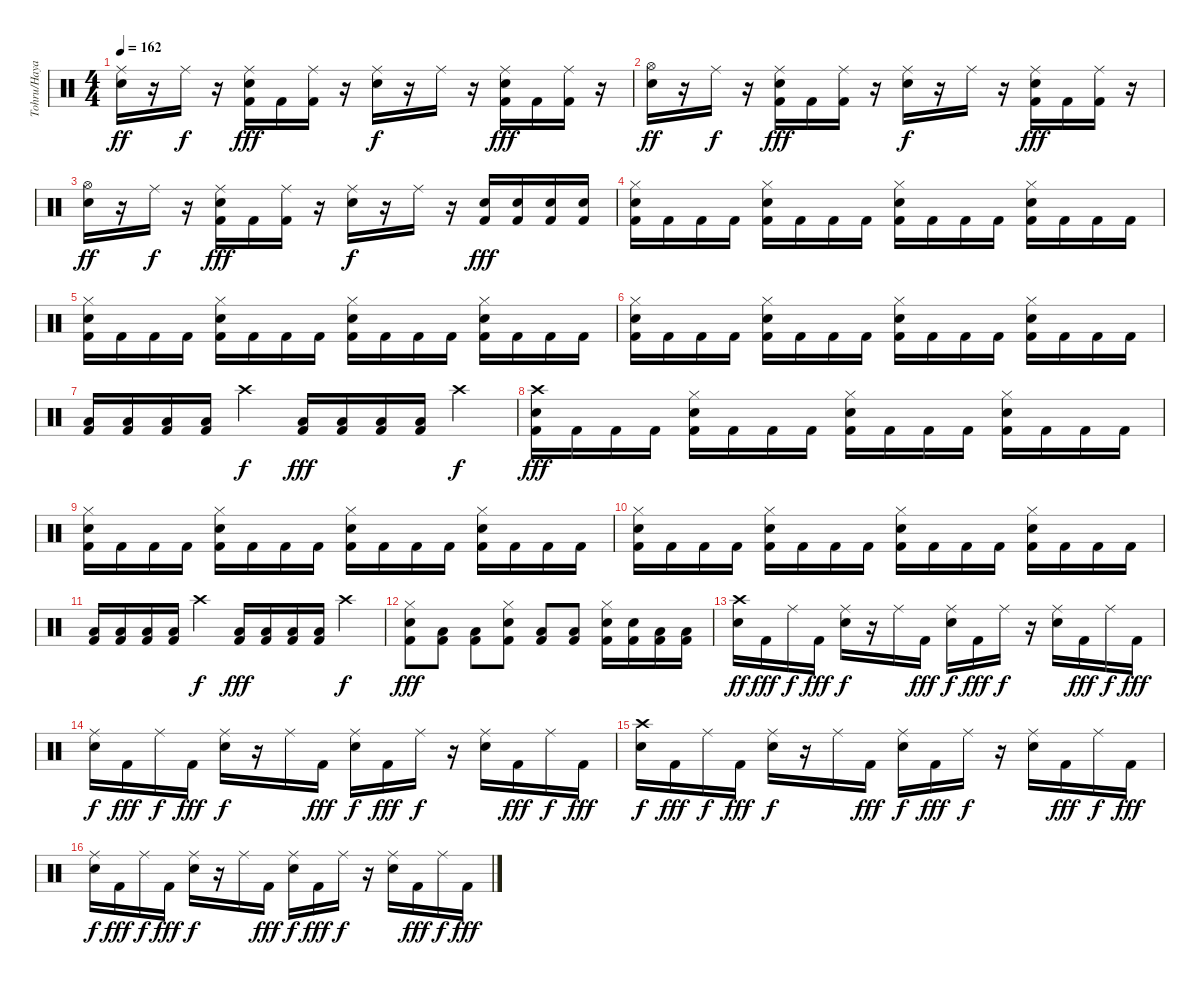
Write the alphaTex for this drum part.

\track ("Tohru/Hayato" "Tohru/Haya") {instrument percussion}
\staff {score}
\articulation defaults
\ts (4 4)
\tempo 162
\clef neutral
\ks c
("Ride (middle)" "Electric Snare (hit)").16{dy ff} r.16 "Ride (middle)".16{dy f} r.16 ("Ride (middle)" "Electric Snare (hit)" "Kick (hit) 2").16{dy fff} "Kick (hit) 2".16 ("Ride (middle)" "Kick (hit) 2").16 r.16 ("Ride (middle)" "Electric Snare (hit)").16{dy f} r.16 "Ride (middle)".16 r.16 ("Ride (middle)" "Electric Snare (hit)" "Kick (hit) 2").16{dy fff} "Kick (hit) 2".16 ("Ride (middle)" "Kick (hit) 2").16 r.16 |
("Hi-Hat (open)" "Electric Snare (hit)").16{dy ff} r.16 "Ride (middle)".16{dy f} r.16 ("Ride (middle)" "Electric Snare (hit)" "Kick (hit) 2").16{dy fff} "Kick (hit) 2".16 ("Ride (middle)" "Kick (hit) 2").16 r.16 ("Ride (middle)" "Electric Snare (hit)").16{dy f} r.16 "Ride (middle)".16 r.16 ("Ride (middle)" "Electric Snare (hit)" "Kick (hit) 2").16{dy fff} "Kick (hit) 2".16 ("Ride (middle)" "Kick (hit) 2").16 r.16 |
("Hi-Hat (open)" "Electric Snare (hit)").16{dy ff} r.16 "Ride (middle)".16{dy f} r.16 ("Ride (middle)" "Electric Snare (hit)" "Kick (hit) 2").16{dy fff} "Kick (hit) 2".16 ("Ride (middle)" "Kick (hit) 2").16 r.16 ("Ride (middle)" "Electric Snare (hit)").16{dy f} r.16 "Ride (middle)".16 r.16 ("Electric Snare (hit)" "Kick (hit) 2").16{dy fff} ("Electric Snare (hit)" "Kick (hit) 2").16 ("Electric Snare (hit)" "Kick (hit) 2").16 ("Electric Snare (hit)" "Kick (hit) 2").16 |
("Hi-Hat (closed)" "Electric Snare (hit)" "Kick (hit) 2").16 "Kick (hit) 2".16 "Kick (hit) 2".16 "Kick (hit) 2".16 ("Hi-Hat (closed)" "Electric Snare (hit)" "Kick (hit) 2").16 "Kick (hit) 2".16 "Kick (hit) 2".16 "Kick (hit) 2".16 ("Hi-Hat (closed)" "Electric Snare (hit)" "Kick (hit) 2").16 "Kick (hit) 2".16 "Kick (hit) 2".16 "Kick (hit) 2".16 ("Hi-Hat (closed)" "Electric Snare (hit)" "Kick (hit) 2").16 "Kick (hit) 2".16 "Kick (hit) 2".16 "Kick (hit) 2".16 |
("Hi-Hat (closed)" "Electric Snare (hit)" "Kick (hit) 2").16 "Kick (hit) 2".16 "Kick (hit) 2".16 "Kick (hit) 2".16 ("Hi-Hat (closed)" "Electric Snare (hit)" "Kick (hit) 2").16 "Kick (hit) 2".16 "Kick (hit) 2".16 "Kick (hit) 2".16 ("Hi-Hat (closed)" "Electric Snare (hit)" "Kick (hit) 2").16 "Kick (hit) 2".16 "Kick (hit) 2".16 "Kick (hit) 2".16 ("Hi-Hat (closed)" "Electric Snare (hit)" "Kick (hit) 2").16 "Kick (hit) 2".16 "Kick (hit) 2".16 "Kick (hit) 2".16 |
("Hi-Hat (closed)" "Electric Snare (hit)" "Kick (hit) 2").16 "Kick (hit) 2".16 "Kick (hit) 2".16 "Kick (hit) 2".16 ("Hi-Hat (closed)" "Electric Snare (hit)" "Kick (hit) 2").16 "Kick (hit) 2".16 "Kick (hit) 2".16 "Kick (hit) 2".16 ("Hi-Hat (closed)" "Electric Snare (hit)" "Kick (hit) 2").16 "Kick (hit) 2".16 "Kick (hit) 2".16 "Kick (hit) 2".16 ("Hi-Hat (closed)" "Electric Snare (hit)" "Kick (hit) 2").16 "Kick (hit) 2".16 "Kick (hit) 2".16 "Kick (hit) 2".16 |
("Low Tom (hit)" "Kick (hit) 2").16 ("Low Tom (hit)" "Kick (hit) 2").16 ("Low Tom (hit)" "Kick (hit) 2").16 ("Low Tom (hit)" "Kick (hit) 2").16 "Crash high (hit)".4{dy f} ("Low Tom (hit)" "Kick (hit) 2").16{dy fff} ("Low Tom (hit)" "Kick (hit) 2").16 ("Low Tom (hit)" "Kick (hit) 2").16 ("Low Tom (hit)" "Kick (hit) 2").16 "Crash high (hit)".4{dy f} |
("Crash high (hit)" "Electric Snare (hit)" "Kick (hit) 2").16{dy fff} "Kick (hit) 2".16 "Kick (hit) 2".16 "Kick (hit) 2".16 ("Hi-Hat (closed)" "Electric Snare (hit)" "Kick (hit) 2").16 "Kick (hit) 2".16 "Kick (hit) 2".16 "Kick (hit) 2".16 ("Hi-Hat (closed)" "Electric Snare (hit)" "Kick (hit) 2").16 "Kick (hit) 2".16 "Kick (hit) 2".16 "Kick (hit) 2".16 ("Hi-Hat (closed)" "Electric Snare (hit)" "Kick (hit) 2").16 "Kick (hit) 2".16 "Kick (hit) 2".16 "Kick (hit) 2".16 |
("Hi-Hat (closed)" "Electric Snare (hit)" "Kick (hit) 2").16 "Kick (hit) 2".16 "Kick (hit) 2".16 "Kick (hit) 2".16 ("Hi-Hat (closed)" "Electric Snare (hit)" "Kick (hit) 2").16 "Kick (hit) 2".16 "Kick (hit) 2".16 "Kick (hit) 2".16 ("Hi-Hat (closed)" "Electric Snare (hit)" "Kick (hit) 2").16 "Kick (hit) 2".16 "Kick (hit) 2".16 "Kick (hit) 2".16 ("Hi-Hat (closed)" "Electric Snare (hit)" "Kick (hit) 2").16 "Kick (hit) 2".16 "Kick (hit) 2".16 "Kick (hit) 2".16 |
("Hi-Hat (closed)" "Electric Snare (hit)" "Kick (hit) 2").16 "Kick (hit) 2".16 "Kick (hit) 2".16 "Kick (hit) 2".16 ("Hi-Hat (closed)" "Electric Snare (hit)" "Kick (hit) 2").16 "Kick (hit) 2".16 "Kick (hit) 2".16 "Kick (hit) 2".16 ("Hi-Hat (closed)" "Electric Snare (hit)" "Kick (hit) 2").16 "Kick (hit) 2".16 "Kick (hit) 2".16 "Kick (hit) 2".16 ("Hi-Hat (closed)" "Electric Snare (hit)" "Kick (hit) 2").16 "Kick (hit) 2".16 "Kick (hit) 2".16 "Kick (hit) 2".16 |
("Low Tom (hit)" "Kick (hit) 2").16 ("Low Tom (hit)" "Kick (hit) 2").16 ("Low Tom (hit)" "Kick (hit) 2").16 ("Low Tom (hit)" "Kick (hit) 2").16 "Crash high (hit)".4{dy f} ("Low Tom (hit)" "Kick (hit) 2").16{dy fff} ("Low Tom (hit)" "Kick (hit) 2").16 ("Low Tom (hit)" "Kick (hit) 2").16 ("Low Tom (hit)" "Kick (hit) 2").16 "Crash high (hit)".4{dy f} |
("Hi-Hat (closed)" "Electric Snare (hit)" "Kick (hit) 2").8{dy fff} ("Low Tom (hit)" "Kick (hit) 2").8 ("Low Tom (hit)" "Kick (hit) 2").8 ("Hi-Hat (closed)" "Electric Snare (hit)" "Kick (hit) 2").8 ("Low Tom (hit)" "Kick (hit) 2").8 ("Low Tom (hit)" "Kick (hit) 2").8 ("Hi-Hat (closed)" "Electric Snare (hit)" "Kick (hit) 2").16 ("Electric Snare (hit)" "Kick (hit) 2").16 ("Low Tom (hit)" "Kick (hit) 2").16 ("Low Tom (hit)" "Kick (hit) 2").16 |
("Crash high (hit)" "Electric Snare (hit)").16{dy ff} "Kick (hit) 2".16{dy fff} "Ride (middle)".16{dy f} "Kick (hit) 2".16{dy fff} ("Ride (middle)" "Electric Snare (hit)").16{dy f} r.16 "Ride (middle)".16 "Kick (hit) 2".16{dy fff} ("Ride (middle)" "Electric Snare (hit)").16{dy f} "Kick (hit) 2".16{dy fff} "Ride (middle)".16{dy f} r.16 ("Ride (middle)" "Electric Snare (hit)").16 "Kick (hit) 2".16{dy fff} "Ride (middle)".16{dy f} "Kick (hit) 2".16{dy fff} |
("Ride (middle)" "Electric Snare (hit)").16{dy f} "Kick (hit) 2".16{dy fff} "Ride (middle)".16{dy f} "Kick (hit) 2".16{dy fff} ("Ride (middle)" "Electric Snare (hit)").16{dy f} r.16 "Ride (middle)".16 "Kick (hit) 2".16{dy fff} ("Ride (middle)" "Electric Snare (hit)").16{dy f} "Kick (hit) 2".16{dy fff} "Ride (middle)".16{dy f} r.16 ("Ride (middle)" "Electric Snare (hit)").16 "Kick (hit) 2".16{dy fff} "Ride (middle)".16{dy f} "Kick (hit) 2".16{dy fff} |
("Crash high (hit)" "Electric Snare (hit)").16{dy f} "Kick (hit) 2".16{dy fff} "Ride (middle)".16{dy f} "Kick (hit) 2".16{dy fff} ("Ride (middle)" "Electric Snare (hit)").16{dy f} r.16 "Ride (middle)".16 "Kick (hit) 2".16{dy fff} ("Ride (middle)" "Electric Snare (hit)").16{dy f} "Kick (hit) 2".16{dy fff} "Ride (middle)".16{dy f} r.16 ("Ride (middle)" "Electric Snare (hit)").16 "Kick (hit) 2".16{dy fff} "Ride (middle)".16{dy f} "Kick (hit) 2".16{dy fff} |
("Ride (middle)" "Electric Snare (hit)").16{dy f} "Kick (hit) 2".16{dy fff} "Ride (middle)".16{dy f} "Kick (hit) 2".16{dy fff} ("Ride (middle)" "Electric Snare (hit)").16{dy f} r.16 "Ride (middle)".16 "Kick (hit) 2".16{dy fff} ("Ride (middle)" "Electric Snare (hit)").16{dy f} "Kick (hit) 2".16{dy fff} "Ride (middle)".16{dy f} r.16 ("Ride (middle)" "Electric Snare (hit)").16 "Kick (hit) 2".16{dy fff} "Ride (middle)".16{dy f} "Kick (hit) 2".16{dy fff}
